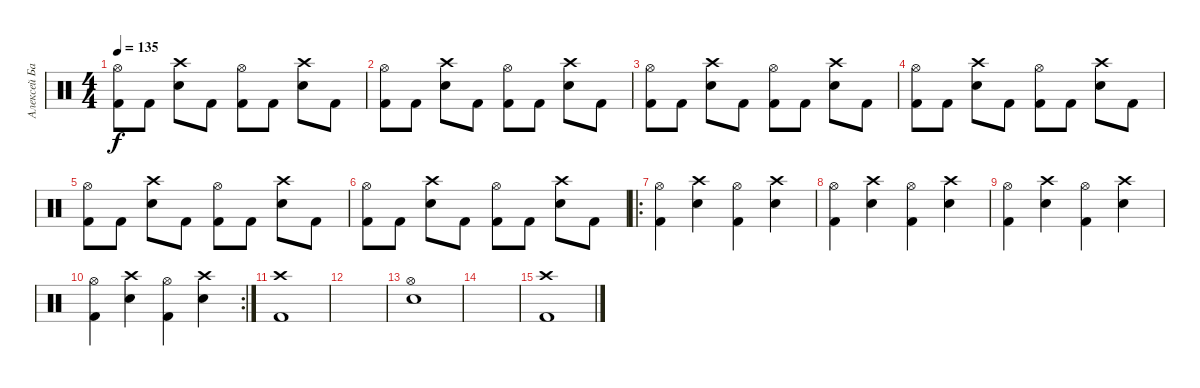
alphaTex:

\track ("Алексей Барзилович" "Алексей Ба") {instrument percussion}
\staff {score}
\articulation defaults
\ts (4 4)
\tempo 135
\clef neutral
\ks c
("Kick (hit) 2" "Hi-Hat (open)").8{dy f} "Kick (hit) 2".8 ("Electric Snare (hit)" "Crash high (hit)").8 "Kick (hit) 2".8 ("Kick (hit) 2" "Hi-Hat (open)").8 "Kick (hit) 2".8 ("Electric Snare (hit)" "Crash high (hit)").8 "Kick (hit) 2".8 |
("Kick (hit) 2" "Hi-Hat (open)").8 "Kick (hit) 2".8 ("Electric Snare (hit)" "Crash high (hit)").8 "Kick (hit) 2".8 ("Kick (hit) 2" "Hi-Hat (open)").8 "Kick (hit) 2".8 ("Electric Snare (hit)" "Crash high (hit)").8 "Kick (hit) 2".8 |
("Kick (hit) 2" "Hi-Hat (open)").8 "Kick (hit) 2".8 ("Electric Snare (hit)" "Crash high (hit)").8 "Kick (hit) 2".8 ("Kick (hit) 2" "Hi-Hat (open)").8 "Kick (hit) 2".8 ("Electric Snare (hit)" "Crash high (hit)").8 "Kick (hit) 2".8 |
("Kick (hit) 2" "Hi-Hat (open)").8 "Kick (hit) 2".8 ("Electric Snare (hit)" "Crash high (hit)").8 "Kick (hit) 2".8 ("Kick (hit) 2" "Hi-Hat (open)").8 "Kick (hit) 2".8 ("Electric Snare (hit)" "Crash high (hit)").8 "Kick (hit) 2".8 |
("Kick (hit) 2" "Hi-Hat (open)").8 "Kick (hit) 2".8 ("Electric Snare (hit)" "Crash high (hit)").8 "Kick (hit) 2".8 ("Kick (hit) 2" "Hi-Hat (open)").8 "Kick (hit) 2".8 ("Electric Snare (hit)" "Crash high (hit)").8 "Kick (hit) 2".8 |
("Kick (hit) 2" "Hi-Hat (open)").8 "Kick (hit) 2".8 ("Electric Snare (hit)" "Crash high (hit)").8 "Kick (hit) 2".8 ("Kick (hit) 2" "Hi-Hat (open)").8 "Kick (hit) 2".8 ("Electric Snare (hit)" "Crash high (hit)").8 "Kick (hit) 2".8 |
\ro
("Hi-Hat (open)" "Kick (hit) 2").4 ("Crash high (hit)" "Electric Snare (hit)").4 ("Hi-Hat (open)" "Kick (hit) 2").4 ("Crash high (hit)" "Electric Snare (hit)").4 |
("Hi-Hat (open)" "Kick (hit) 2").4 ("Crash high (hit)" "Electric Snare (hit)").4 ("Hi-Hat (open)" "Kick (hit) 2").4 ("Crash high (hit)" "Electric Snare (hit)").4 |
("Hi-Hat (open)" "Kick (hit) 2").4 ("Crash high (hit)" "Electric Snare (hit)").4 ("Hi-Hat (open)" "Kick (hit) 2").4 ("Crash high (hit)" "Electric Snare (hit)").4 |
\rc 2
("Hi-Hat (open)" "Kick (hit) 2").4 ("Crash high (hit)" "Electric Snare (hit)").4 ("Hi-Hat (open)" "Kick (hit) 2").4 ("Crash high (hit)" "Electric Snare (hit)").4 |
("Kick (hit) 2" "Crash high (hit)").1 |
|
("Hi-Hat (open)" "Electric Snare (hit)").1 |
|
("Kick (hit) 2" "Crash high (hit)").1
